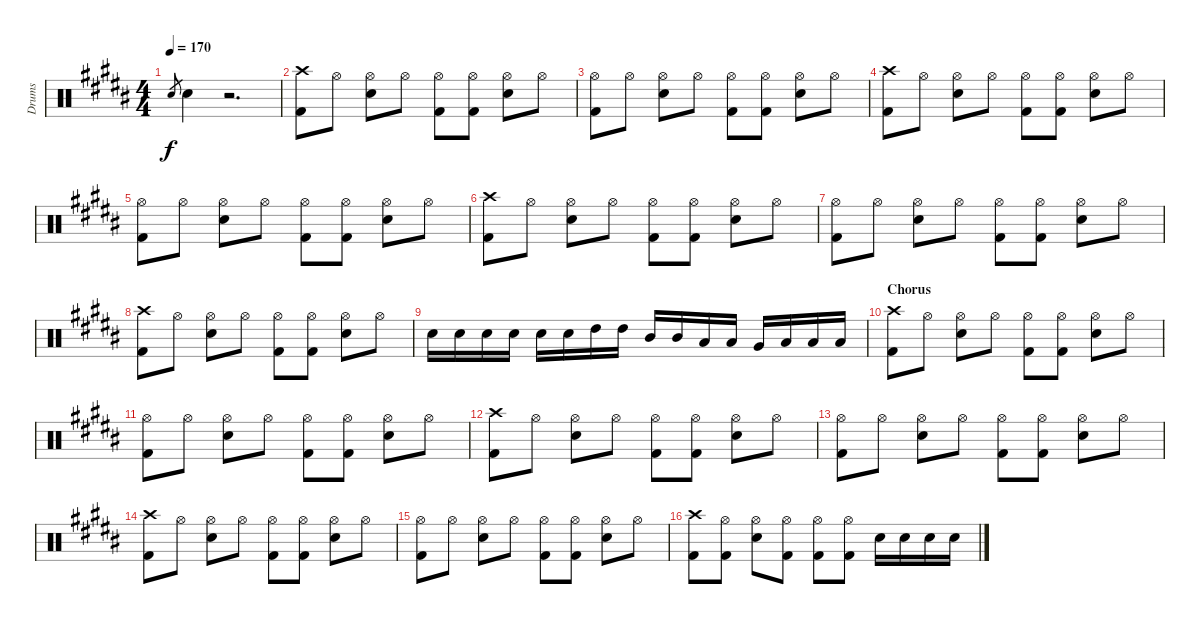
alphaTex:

\track ("Drums" "Drums") {instrument percussion}
\staff {score}
\articulation defaults
\ts (4 4)
\tempo 170
\clef neutral
\ks b "Electric Snare (hit)".8{gr dy f} "Electric Snare (hit)".4
r.2{d} |
("Crash high (hit)" "Kick (hit) 2").8 "Hi-Hat (open)".8 ("Hi-Hat (open)" "Electric Snare (hit)").8 "Hi-Hat (open)".8 ("Hi-Hat (open)" "Kick (hit) 2").8 ("Hi-Hat (open)" "Kick (hit) 2").8 ("Hi-Hat (open)" "Electric Snare (hit)").8 "Hi-Hat (open)".8 |
("Hi-Hat (open)" "Kick (hit) 2").8 "Hi-Hat (open)".8 ("Hi-Hat (open)" "Electric Snare (hit)").8 "Hi-Hat (open)".8 ("Hi-Hat (open)" "Kick (hit) 2").8 ("Hi-Hat (open)" "Kick (hit) 2").8 ("Hi-Hat (open)" "Electric Snare (hit)").8 "Hi-Hat (open)".8 |
("Crash high (hit)" "Kick (hit) 2").8 "Hi-Hat (open)".8 ("Hi-Hat (open)" "Electric Snare (hit)").8 "Hi-Hat (open)".8 ("Hi-Hat (open)" "Kick (hit) 2").8 ("Hi-Hat (open)" "Kick (hit) 2").8 ("Hi-Hat (open)" "Electric Snare (hit)").8 "Hi-Hat (open)".8 |
("Hi-Hat (open)" "Kick (hit) 2").8 "Hi-Hat (open)".8 ("Hi-Hat (open)" "Electric Snare (hit)").8 "Hi-Hat (open)".8 ("Hi-Hat (open)" "Kick (hit) 2").8 ("Hi-Hat (open)" "Kick (hit) 2").8 ("Hi-Hat (open)" "Electric Snare (hit)").8 "Hi-Hat (open)".8 |
("Crash high (hit)" "Kick (hit) 2").8 "Hi-Hat (open)".8 ("Hi-Hat (open)" "Electric Snare (hit)").8 "Hi-Hat (open)".8 ("Hi-Hat (open)" "Kick (hit) 2").8 ("Hi-Hat (open)" "Kick (hit) 2").8 ("Hi-Hat (open)" "Electric Snare (hit)").8 "Hi-Hat (open)".8 |
("Hi-Hat (open)" "Kick (hit) 2").8 "Hi-Hat (open)".8 ("Hi-Hat (open)" "Electric Snare (hit)").8 "Hi-Hat (open)".8 ("Hi-Hat (open)" "Kick (hit) 2").8 ("Hi-Hat (open)" "Kick (hit) 2").8 ("Hi-Hat (open)" "Electric Snare (hit)").8 "Hi-Hat (open)".8 |
("Crash high (hit)" "Kick (hit) 2").8 "Hi-Hat (open)".8 ("Hi-Hat (open)" "Electric Snare (hit)").8 "Hi-Hat (open)".8 ("Hi-Hat (open)" "Kick (hit) 2").8 ("Hi-Hat (open)" "Kick (hit) 2").8 ("Hi-Hat (open)" "Electric Snare (hit)").8 "Hi-Hat (open)".8 |
"Electric Snare (hit)".16 "Electric Snare (hit)".16 "Electric Snare (hit)".16 "Electric Snare (hit)".16 "Electric Snare (hit)".16 "Electric Snare (hit)".16 "High Tom (hit)".16 "High Tom (hit)".16 "Mid Tom (hit)".16 "Mid Tom (hit)".16 "Low Tom (hit)".16 "Low Tom (hit)".16 "Very Low Tom (hit)".16 "Low Floor Tom (hit)".16 "Low Floor Tom (hit)".16 "Low Floor Tom (hit)".16 |
\section ("" "Chorus")
("Crash high (hit)" "Kick (hit) 2").8 "Hi-Hat (open)".8 ("Hi-Hat (open)" "Electric Snare (hit)").8 "Hi-Hat (open)".8 ("Hi-Hat (open)" "Kick (hit) 2").8 ("Hi-Hat (open)" "Kick (hit) 2").8 ("Hi-Hat (open)" "Electric Snare (hit)").8 "Hi-Hat (open)".8 |
("Hi-Hat (open)" "Kick (hit) 2").8 "Hi-Hat (open)".8 ("Hi-Hat (open)" "Electric Snare (hit)").8 "Hi-Hat (open)".8 ("Hi-Hat (open)" "Kick (hit) 2").8 ("Hi-Hat (open)" "Kick (hit) 2").8 ("Hi-Hat (open)" "Electric Snare (hit)").8 "Hi-Hat (open)".8 |
("Crash high (hit)" "Kick (hit) 2").8 "Hi-Hat (open)".8 ("Hi-Hat (open)" "Electric Snare (hit)").8 "Hi-Hat (open)".8 ("Hi-Hat (open)" "Kick (hit) 2").8 ("Hi-Hat (open)" "Kick (hit) 2").8 ("Hi-Hat (open)" "Electric Snare (hit)").8 "Hi-Hat (open)".8 |
("Hi-Hat (open)" "Kick (hit) 2").8 "Hi-Hat (open)".8 ("Hi-Hat (open)" "Electric Snare (hit)").8 "Hi-Hat (open)".8 ("Hi-Hat (open)" "Kick (hit) 2").8 ("Hi-Hat (open)" "Kick (hit) 2").8 ("Hi-Hat (open)" "Electric Snare (hit)").8 "Hi-Hat (open)".8 |
("Crash high (hit)" "Kick (hit) 2").8 "Hi-Hat (open)".8 ("Hi-Hat (open)" "Electric Snare (hit)").8 "Hi-Hat (open)".8 ("Hi-Hat (open)" "Kick (hit) 2").8 ("Hi-Hat (open)" "Kick (hit) 2").8 ("Hi-Hat (open)" "Electric Snare (hit)").8 "Hi-Hat (open)".8 |
("Hi-Hat (open)" "Kick (hit) 2").8 "Hi-Hat (open)".8 ("Hi-Hat (open)" "Electric Snare (hit)").8 "Hi-Hat (open)".8 ("Hi-Hat (open)" "Kick (hit) 2").8 ("Hi-Hat (open)" "Kick (hit) 2").8 ("Hi-Hat (open)" "Electric Snare (hit)").8 "Hi-Hat (open)".8 |
("Crash high (hit)" "Kick (hit) 2").8 ("Hi-Hat (open)" "Kick (hit) 2").8 ("Hi-Hat (open)" "Electric Snare (hit)").8 ("Hi-Hat (open)" "Kick (hit) 2").8 ("Hi-Hat (open)" "Kick (hit) 2").8 ("Hi-Hat (open)" "Kick (hit) 2").8 "Electric Snare (hit)".16 "Electric Snare (hit)".16 "Electric Snare (hit)".16 "Electric Snare (hit)".16
